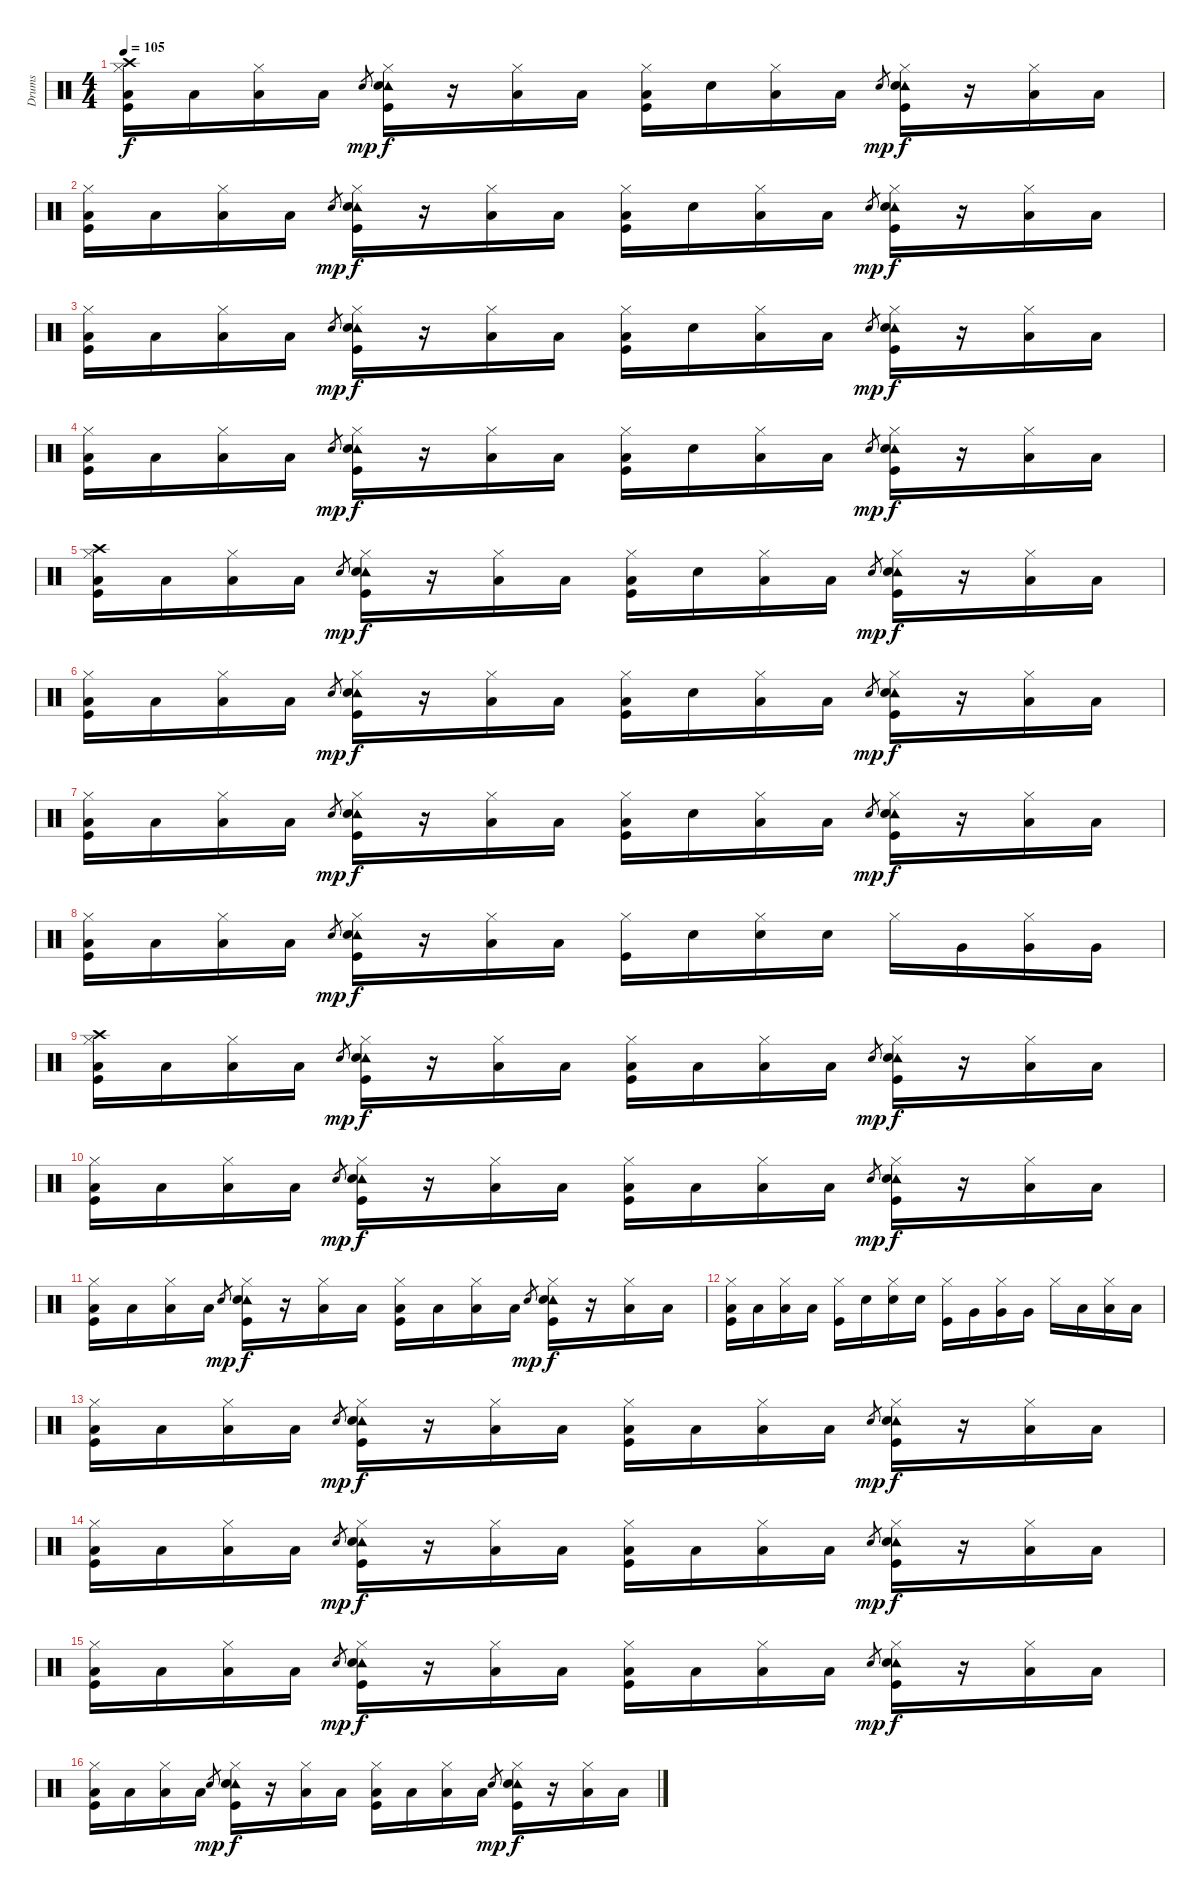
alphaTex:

\track ("Drums" "Drums") {instrument percussion}
\staff {score}
\articulation defaults
\ts (4 4)
\tempo 105
\clef neutral
\ks c
("Crash high (hit)" "Hi-Hat (closed)" "Low Floor Tom (hit)" "Kick (hit)").16{dy f} "Low Floor Tom (hit)".16 ("Hi-Hat (closed)" "Low Floor Tom (hit)").16 "Low Floor Tom (hit)".16 "Snare (hit) 2".8{gr dy mp} ("Tambourine (hit)" "Hi-Hat (closed)" "Snare (hit) 2" "Kick (hit)").16{dy f} r.16 ("Hi-Hat (closed)" "Low Floor Tom (hit)").16 "Low Floor Tom (hit)".16 ("Hi-Hat (closed)" "Low Floor Tom (hit)" "Kick (hit)").16 "Snare (hit) 2".16 ("Hi-Hat (closed)" "Low Floor Tom (hit)").16 "Low Floor Tom (hit)".16 "Snare (hit) 2".8{gr dy mp} ("Tambourine (hit)" "Hi-Hat (closed)" "Snare (hit) 2" "Kick (hit)").16{dy f} r.16 ("Hi-Hat (closed)" "Low Floor Tom (hit)").16 "Low Floor Tom (hit)".16 |
("Hi-Hat (closed)" "Low Floor Tom (hit)" "Kick (hit)").16 "Low Floor Tom (hit)".16 ("Hi-Hat (closed)" "Low Floor Tom (hit)").16 "Low Floor Tom (hit)".16 "Snare (hit) 2".8{gr dy mp} ("Tambourine (hit)" "Hi-Hat (closed)" "Snare (hit) 2" "Kick (hit)").16{dy f} r.16 ("Hi-Hat (closed)" "Low Floor Tom (hit)").16 "Low Floor Tom (hit)".16 ("Hi-Hat (closed)" "Low Floor Tom (hit)" "Kick (hit)").16 "Snare (hit) 2".16 ("Hi-Hat (closed)" "Low Floor Tom (hit)").16 "Low Floor Tom (hit)".16 "Snare (hit) 2".8{gr dy mp} ("Tambourine (hit)" "Hi-Hat (closed)" "Snare (hit) 2" "Kick (hit)").16{dy f} r.16 ("Hi-Hat (closed)" "Low Floor Tom (hit)").16 "Low Floor Tom (hit)".16 |
("Hi-Hat (closed)" "Low Floor Tom (hit)" "Kick (hit)").16 "Low Floor Tom (hit)".16 ("Hi-Hat (closed)" "Low Floor Tom (hit)").16 "Low Floor Tom (hit)".16 "Snare (hit) 2".8{gr dy mp} ("Tambourine (hit)" "Hi-Hat (closed)" "Snare (hit) 2" "Kick (hit)").16{dy f} r.16 ("Hi-Hat (closed)" "Low Floor Tom (hit)").16 "Low Floor Tom (hit)".16 ("Hi-Hat (closed)" "Low Floor Tom (hit)" "Kick (hit)").16 "Snare (hit) 2".16 ("Hi-Hat (closed)" "Low Floor Tom (hit)").16 "Low Floor Tom (hit)".16 "Snare (hit) 2".8{gr dy mp} ("Tambourine (hit)" "Hi-Hat (closed)" "Snare (hit) 2" "Kick (hit)").16{dy f} r.16 ("Hi-Hat (closed)" "Low Floor Tom (hit)").16 "Low Floor Tom (hit)".16 |
("Hi-Hat (closed)" "Low Floor Tom (hit)" "Kick (hit)").16 "Low Floor Tom (hit)".16 ("Hi-Hat (closed)" "Low Floor Tom (hit)").16 "Low Floor Tom (hit)".16 "Snare (hit) 2".8{gr dy mp} ("Tambourine (hit)" "Hi-Hat (closed)" "Snare (hit) 2" "Kick (hit)").16{dy f} r.16 ("Hi-Hat (closed)" "Low Floor Tom (hit)").16 "Low Floor Tom (hit)".16 ("Hi-Hat (closed)" "Low Floor Tom (hit)" "Kick (hit)").16 "Snare (hit) 2".16 ("Hi-Hat (closed)" "Low Floor Tom (hit)").16 "Low Floor Tom (hit)".16 "Snare (hit) 2".8{gr dy mp} ("Tambourine (hit)" "Hi-Hat (closed)" "Snare (hit) 2" "Kick (hit)").16{dy f} r.16 ("Hi-Hat (closed)" "Low Floor Tom (hit)").16 "Low Floor Tom (hit)".16 |
("Crash high (hit)" "Hi-Hat (closed)" "Low Floor Tom (hit)" "Kick (hit)").16 "Low Floor Tom (hit)".16 ("Hi-Hat (closed)" "Low Floor Tom (hit)").16 "Low Floor Tom (hit)".16 "Snare (hit) 2".8{gr dy mp} ("Tambourine (hit)" "Hi-Hat (closed)" "Snare (hit) 2" "Kick (hit)").16{dy f} r.16 ("Hi-Hat (closed)" "Low Floor Tom (hit)").16 "Low Floor Tom (hit)".16 ("Hi-Hat (closed)" "Low Floor Tom (hit)" "Kick (hit)").16 "Snare (hit) 2".16 ("Hi-Hat (closed)" "Low Floor Tom (hit)").16 "Low Floor Tom (hit)".16 "Snare (hit) 2".8{gr dy mp} ("Tambourine (hit)" "Hi-Hat (closed)" "Snare (hit) 2" "Kick (hit)").16{dy f} r.16 ("Hi-Hat (closed)" "Low Floor Tom (hit)").16 "Low Floor Tom (hit)".16 |
("Hi-Hat (closed)" "Low Floor Tom (hit)" "Kick (hit)").16 "Low Floor Tom (hit)".16 ("Hi-Hat (closed)" "Low Floor Tom (hit)").16 "Low Floor Tom (hit)".16 "Snare (hit) 2".8{gr dy mp} ("Tambourine (hit)" "Hi-Hat (closed)" "Snare (hit) 2" "Kick (hit)").16{dy f} r.16 ("Hi-Hat (closed)" "Low Floor Tom (hit)").16 "Low Floor Tom (hit)".16 ("Hi-Hat (closed)" "Low Floor Tom (hit)" "Kick (hit)").16 "Snare (hit) 2".16 ("Hi-Hat (closed)" "Low Floor Tom (hit)").16 "Low Floor Tom (hit)".16 "Snare (hit) 2".8{gr dy mp} ("Tambourine (hit)" "Hi-Hat (closed)" "Snare (hit) 2" "Kick (hit)").16{dy f} r.16 ("Hi-Hat (closed)" "Low Floor Tom (hit)").16 "Low Floor Tom (hit)".16 |
("Hi-Hat (closed)" "Low Floor Tom (hit)" "Kick (hit)").16 "Low Floor Tom (hit)".16 ("Hi-Hat (closed)" "Low Floor Tom (hit)").16 "Low Floor Tom (hit)".16 "Snare (hit) 2".8{gr dy mp} ("Tambourine (hit)" "Hi-Hat (closed)" "Snare (hit) 2" "Kick (hit)").16{dy f} r.16 ("Hi-Hat (closed)" "Low Floor Tom (hit)").16 "Low Floor Tom (hit)".16 ("Hi-Hat (closed)" "Low Floor Tom (hit)" "Kick (hit)").16 "Snare (hit) 2".16 ("Hi-Hat (closed)" "Low Floor Tom (hit)").16 "Low Floor Tom (hit)".16 "Snare (hit) 2".8{gr dy mp} ("Tambourine (hit)" "Hi-Hat (closed)" "Snare (hit) 2" "Kick (hit)").16{dy f} r.16 ("Hi-Hat (closed)" "Low Floor Tom (hit)").16 "Low Floor Tom (hit)".16 |
("Hi-Hat (closed)" "Low Floor Tom (hit)" "Kick (hit)").16 "Low Floor Tom (hit)".16 ("Hi-Hat (closed)" "Low Floor Tom (hit)").16 "Low Floor Tom (hit)".16 "Snare (hit) 2".8{gr dy mp} ("Tambourine (hit)" "Hi-Hat (closed)" "Snare (hit) 2" "Kick (hit)").16{dy f} r.16 ("Hi-Hat (closed)" "Low Floor Tom (hit)").16 "Low Floor Tom (hit)".16 ("Hi-Hat (closed)" "Kick (hit)").16 "Snare (hit) 2".16 ("Hi-Hat (closed)" "Snare (hit) 2").16 "Snare (hit) 2".16 "Hi-Hat (closed)".16 "Very Low Tom (hit)".16 ("Hi-Hat (closed)" "Very Low Tom (hit)").16 "Very Low Tom (hit)".16 |
("Crash high (hit)" "Hi-Hat (closed)" "Low Floor Tom (hit)" "Kick (hit)").16 "Low Floor Tom (hit)".16 ("Hi-Hat (closed)" "Low Floor Tom (hit)").16 "Low Floor Tom (hit)".16 "Snare (hit) 2".8{gr dy mp} ("Tambourine (hit)" "Hi-Hat (closed)" "Snare (hit) 2" "Kick (hit)").16{dy f} r.16 ("Hi-Hat (closed)" "Low Floor Tom (hit)").16 "Low Floor Tom (hit)".16 ("Hi-Hat (closed)" "Low Floor Tom (hit)" "Kick (hit)").16 "Low Floor Tom (hit)".16 ("Hi-Hat (closed)" "Low Floor Tom (hit)").16 "Low Floor Tom (hit)".16 "Snare (hit) 2".8{gr dy mp} ("Tambourine (hit)" "Hi-Hat (closed)" "Snare (hit) 2" "Kick (hit)").16{dy f} r.16 ("Hi-Hat (closed)" "Low Floor Tom (hit)").16 "Low Floor Tom (hit)".16 |
("Hi-Hat (closed)" "Low Floor Tom (hit)" "Kick (hit)").16 "Low Floor Tom (hit)".16 ("Hi-Hat (closed)" "Low Floor Tom (hit)").16 "Low Floor Tom (hit)".16 "Snare (hit) 2".8{gr dy mp} ("Tambourine (hit)" "Hi-Hat (closed)" "Snare (hit) 2" "Kick (hit)").16{dy f} r.16 ("Hi-Hat (closed)" "Low Floor Tom (hit)").16 "Low Floor Tom (hit)".16 ("Hi-Hat (closed)" "Low Floor Tom (hit)" "Kick (hit)").16 "Low Floor Tom (hit)".16 ("Hi-Hat (closed)" "Low Floor Tom (hit)").16 "Low Floor Tom (hit)".16 "Snare (hit) 2".8{gr dy mp} ("Tambourine (hit)" "Hi-Hat (closed)" "Snare (hit) 2" "Kick (hit)").16{dy f} r.16 ("Hi-Hat (closed)" "Low Floor Tom (hit)").16 "Low Floor Tom (hit)".16 |
("Hi-Hat (closed)" "Low Floor Tom (hit)" "Kick (hit)").16 "Low Floor Tom (hit)".16 ("Hi-Hat (closed)" "Low Floor Tom (hit)").16 "Low Floor Tom (hit)".16 "Snare (hit) 2".8{gr dy mp} ("Tambourine (hit)" "Hi-Hat (closed)" "Snare (hit) 2" "Kick (hit)").16{dy f} r.16 ("Hi-Hat (closed)" "Low Floor Tom (hit)").16 "Low Floor Tom (hit)".16 ("Hi-Hat (closed)" "Low Floor Tom (hit)" "Kick (hit)").16 "Low Floor Tom (hit)".16 ("Hi-Hat (closed)" "Low Floor Tom (hit)").16 "Low Floor Tom (hit)".16 "Snare (hit) 2".8{gr dy mp} ("Tambourine (hit)" "Hi-Hat (closed)" "Snare (hit) 2" "Kick (hit)").16{dy f} r.16 ("Hi-Hat (closed)" "Low Floor Tom (hit)").16 "Low Floor Tom (hit)".16 |
("Hi-Hat (closed)" "Low Floor Tom (hit)" "Kick (hit)").16 "Low Floor Tom (hit)".16 ("Hi-Hat (closed)" "Low Floor Tom (hit)").16 "Low Floor Tom (hit)".16 ("Hi-Hat (closed)" "Kick (hit)").16 "Snare (hit) 2".16 ("Hi-Hat (closed)" "Snare (hit) 2").16 "Snare (hit) 2".16 ("Hi-Hat (closed)" "Kick (hit)").16 "Very Low Tom (hit)".16 ("Hi-Hat (closed)" "Very Low Tom (hit)").16 "Very Low Tom (hit)".16 "Hi-Hat (closed)".16 "Low Floor Tom (hit)".16 ("Hi-Hat (closed)" "Low Floor Tom (hit)").16 "Low Floor Tom (hit)".16 |
("Hi-Hat (closed)" "Low Floor Tom (hit)" "Kick (hit)").16 "Low Floor Tom (hit)".16 ("Hi-Hat (closed)" "Low Floor Tom (hit)").16 "Low Floor Tom (hit)".16 "Snare (hit) 2".8{gr dy mp} ("Tambourine (hit)" "Hi-Hat (closed)" "Snare (hit) 2" "Kick (hit)").16{dy f} r.16 ("Hi-Hat (closed)" "Low Floor Tom (hit)").16 "Low Floor Tom (hit)".16 ("Hi-Hat (closed)" "Low Floor Tom (hit)" "Kick (hit)").16 "Low Floor Tom (hit)".16 ("Hi-Hat (closed)" "Low Floor Tom (hit)").16 "Low Floor Tom (hit)".16 "Snare (hit) 2".8{gr dy mp} ("Tambourine (hit)" "Hi-Hat (closed)" "Snare (hit) 2" "Kick (hit)").16{dy f} r.16 ("Hi-Hat (closed)" "Low Floor Tom (hit)").16 "Low Floor Tom (hit)".16 |
("Hi-Hat (closed)" "Low Floor Tom (hit)" "Kick (hit)").16 "Low Floor Tom (hit)".16 ("Hi-Hat (closed)" "Low Floor Tom (hit)").16 "Low Floor Tom (hit)".16 "Snare (hit) 2".8{gr dy mp} ("Tambourine (hit)" "Hi-Hat (closed)" "Snare (hit) 2" "Kick (hit)").16{dy f} r.16 ("Hi-Hat (closed)" "Low Floor Tom (hit)").16 "Low Floor Tom (hit)".16 ("Hi-Hat (closed)" "Low Floor Tom (hit)" "Kick (hit)").16 "Low Floor Tom (hit)".16 ("Hi-Hat (closed)" "Low Floor Tom (hit)").16 "Low Floor Tom (hit)".16 "Snare (hit) 2".8{gr dy mp} ("Tambourine (hit)" "Hi-Hat (closed)" "Snare (hit) 2" "Kick (hit)").16{dy f} r.16 ("Hi-Hat (closed)" "Low Floor Tom (hit)").16 "Low Floor Tom (hit)".16 |
("Hi-Hat (closed)" "Low Floor Tom (hit)" "Kick (hit)").16 "Low Floor Tom (hit)".16 ("Hi-Hat (closed)" "Low Floor Tom (hit)").16 "Low Floor Tom (hit)".16 "Snare (hit) 2".8{gr dy mp} ("Tambourine (hit)" "Hi-Hat (closed)" "Snare (hit) 2" "Kick (hit)").16{dy f} r.16 ("Hi-Hat (closed)" "Low Floor Tom (hit)").16 "Low Floor Tom (hit)".16 ("Hi-Hat (closed)" "Low Floor Tom (hit)" "Kick (hit)").16 "Low Floor Tom (hit)".16 ("Hi-Hat (closed)" "Low Floor Tom (hit)").16 "Low Floor Tom (hit)".16 "Snare (hit) 2".8{gr dy mp} ("Tambourine (hit)" "Hi-Hat (closed)" "Snare (hit) 2" "Kick (hit)").16{dy f} r.16 ("Hi-Hat (closed)" "Low Floor Tom (hit)").16 "Low Floor Tom (hit)".16 |
("Hi-Hat (closed)" "Low Floor Tom (hit)" "Kick (hit)").16 "Low Floor Tom (hit)".16 ("Hi-Hat (closed)" "Low Floor Tom (hit)").16 "Low Floor Tom (hit)".16 "Snare (hit) 2".8{gr dy mp} ("Tambourine (hit)" "Hi-Hat (closed)" "Snare (hit) 2" "Kick (hit)").16{dy f} r.16 ("Hi-Hat (closed)" "Low Floor Tom (hit)").16 "Low Floor Tom (hit)".16 ("Hi-Hat (closed)" "Low Floor Tom (hit)" "Kick (hit)").16 "Low Floor Tom (hit)".16 ("Hi-Hat (closed)" "Low Floor Tom (hit)").16 "Low Floor Tom (hit)".16 "Snare (hit) 2".8{gr dy mp} ("Tambourine (hit)" "Hi-Hat (closed)" "Snare (hit) 2" "Kick (hit)").16{dy f} r.16 ("Hi-Hat (closed)" "Low Floor Tom (hit)").16 "Low Floor Tom (hit)".16
